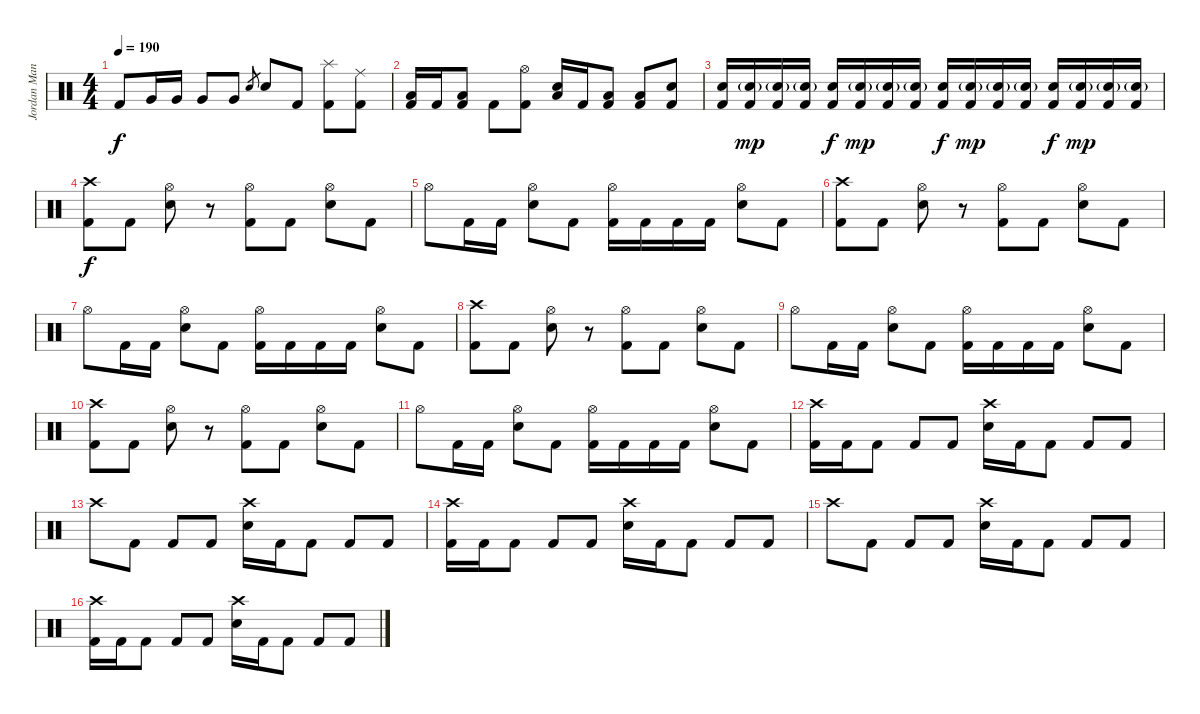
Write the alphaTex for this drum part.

\track ("Jordan Mancino" "Jordan Man") {instrument percussion}
\staff {score}
\articulation defaults
\ts (4 4)
\tempo 190
\clef neutral
\ks c "Kick (hit) 2".8{dy f} "Very Low Tom (hit)".16 "Very Low Tom (hit)".16 "Very Low Tom (hit)".8 "Very Low Tom (hit)".8 "Electric Snare (hit)".8{gr} "Electric Snare (hit)".8 "Kick (hit) 2".8
("Splash (hit)" "Kick (hit) 2").8 ("Ride (middle)" "Kick (hit) 2").8 |
("Low Tom (hit)" "Kick (hit) 2").16 "Kick (hit) 2".16 ("Low Tom (hit)" "Kick (hit) 2").8 "Kick (hit) 2".8 ("Hi-Hat (open)" "Kick (hit) 2").8 ("Low Floor Tom (hit)" "Electric Snare (hit)").16 "Kick (hit) 2".16 ("Low Floor Tom (hit)" "Kick (hit) 2").8 ("Low Floor Tom (hit)" "Kick (hit) 2").8 ("Electric Snare (hit)" "Kick (hit) 2").8 |
("Electric Snare (hit)" "Kick (hit) 2").16 ("Electric Snare (hit)"{g} "Kick (hit) 2").16{dy mp} ("Electric Snare (hit)"{g} "Kick (hit) 2").16 ("Electric Snare (hit)"{g} "Kick (hit) 2").16 ("Electric Snare (hit)" "Kick (hit) 2").16{dy f} ("Electric Snare (hit)"{g} "Kick (hit) 2").16{dy mp} ("Electric Snare (hit)"{g} "Kick (hit) 2").16 ("Electric Snare (hit)"{g} "Kick (hit) 2").16 ("Electric Snare (hit)" "Kick (hit) 2").16{dy f} ("Electric Snare (hit)"{g} "Kick (hit) 2").16{dy mp} ("Electric Snare (hit)"{g} "Kick (hit) 2").16 ("Electric Snare (hit)"{g} "Kick (hit) 2").16 ("Electric Snare (hit)" "Kick (hit) 2").16{dy f} ("Electric Snare (hit)"{g} "Kick (hit) 2").16{dy mp} ("Electric Snare (hit)"{g} "Kick (hit) 2").16 ("Electric Snare (hit)"{g} "Kick (hit) 2").16 |
("Crash high (hit)" "Kick (hit) 2").8{dy f} "Kick (hit) 2".8 ("Hi-Hat (open)" "Electric Snare (hit)").8 r.8 ("Hi-Hat (open)" "Kick (hit) 2").8 "Kick (hit) 2".8 ("Hi-Hat (open)" "Electric Snare (hit)").8 "Kick (hit) 2".8 |
"Hi-Hat (open)".8 "Kick (hit) 2".16 "Kick (hit) 2".16 ("Hi-Hat (open)" "Electric Snare (hit)").8 "Kick (hit) 2".8 ("Hi-Hat (open)" "Kick (hit) 2").16 "Kick (hit) 2".16 "Kick (hit) 2".16 "Kick (hit) 2".16 ("Hi-Hat (open)" "Electric Snare (hit)").8 "Kick (hit) 2".8 |
("Crash high (hit)" "Kick (hit) 2").8 "Kick (hit) 2".8 ("Hi-Hat (open)" "Electric Snare (hit)").8 r.8 ("Hi-Hat (open)" "Kick (hit) 2").8 "Kick (hit) 2".8 ("Hi-Hat (open)" "Electric Snare (hit)").8 "Kick (hit) 2".8 |
"Hi-Hat (open)".8 "Kick (hit) 2".16 "Kick (hit) 2".16 ("Hi-Hat (open)" "Electric Snare (hit)").8 "Kick (hit) 2".8 ("Hi-Hat (open)" "Kick (hit) 2").16 "Kick (hit) 2".16 "Kick (hit) 2".16 "Kick (hit) 2".16 ("Hi-Hat (open)" "Electric Snare (hit)").8 "Kick (hit) 2".8 |
("Crash high (hit)" "Kick (hit) 2").8 "Kick (hit) 2".8 ("Hi-Hat (open)" "Electric Snare (hit)").8 r.8 ("Hi-Hat (open)" "Kick (hit) 2").8 "Kick (hit) 2".8 ("Hi-Hat (open)" "Electric Snare (hit)").8 "Kick (hit) 2".8 |
"Hi-Hat (open)".8 "Kick (hit) 2".16 "Kick (hit) 2".16 ("Hi-Hat (open)" "Electric Snare (hit)").8 "Kick (hit) 2".8 ("Hi-Hat (open)" "Kick (hit) 2").16 "Kick (hit) 2".16 "Kick (hit) 2".16 "Kick (hit) 2".16 ("Hi-Hat (open)" "Electric Snare (hit)").8 "Kick (hit) 2".8 |
("Crash high (hit)" "Kick (hit) 2").8 "Kick (hit) 2".8 ("Hi-Hat (open)" "Electric Snare (hit)").8 r.8 ("Hi-Hat (open)" "Kick (hit) 2").8 "Kick (hit) 2".8 ("Hi-Hat (open)" "Electric Snare (hit)").8 "Kick (hit) 2".8 |
"Hi-Hat (open)".8 "Kick (hit) 2".16 "Kick (hit) 2".16 ("Hi-Hat (open)" "Electric Snare (hit)").8 "Kick (hit) 2".8 ("Hi-Hat (open)" "Kick (hit) 2").16 "Kick (hit) 2".16 "Kick (hit) 2".16 "Kick (hit) 2".16 ("Hi-Hat (open)" "Electric Snare (hit)").8 "Kick (hit) 2".8 |
("Crash high (hit)" "Kick (hit) 2").16 "Kick (hit) 2".16 "Kick (hit) 2".8 "Kick (hit) 2".8 "Kick (hit) 2".8 ("Crash high (hit)" "Electric Snare (hit)").16 "Kick (hit) 2".16 "Kick (hit) 2".8 "Kick (hit) 2".8 "Kick (hit) 2".8 |
"Crash high (hit)".8 "Kick (hit) 2".8 "Kick (hit) 2".8 "Kick (hit) 2".8 ("Crash high (hit)" "Electric Snare (hit)").16 "Kick (hit) 2".16 "Kick (hit) 2".8 "Kick (hit) 2".8 "Kick (hit) 2".8 |
("Crash high (hit)" "Kick (hit) 2").16 "Kick (hit) 2".16 "Kick (hit) 2".8 "Kick (hit) 2".8 "Kick (hit) 2".8 ("Crash high (hit)" "Electric Snare (hit)").16 "Kick (hit) 2".16 "Kick (hit) 2".8 "Kick (hit) 2".8 "Kick (hit) 2".8 |
"Crash high (hit)".8 "Kick (hit) 2".8 "Kick (hit) 2".8 "Kick (hit) 2".8 ("Crash high (hit)" "Electric Snare (hit)").16 "Kick (hit) 2".16 "Kick (hit) 2".8 "Kick (hit) 2".8 "Kick (hit) 2".8 |
("Crash high (hit)" "Kick (hit) 2").16 "Kick (hit) 2".16 "Kick (hit) 2".8 "Kick (hit) 2".8 "Kick (hit) 2".8 ("Crash high (hit)" "Electric Snare (hit)").16 "Kick (hit) 2".16 "Kick (hit) 2".8 "Kick (hit) 2".8 "Kick (hit) 2".8
